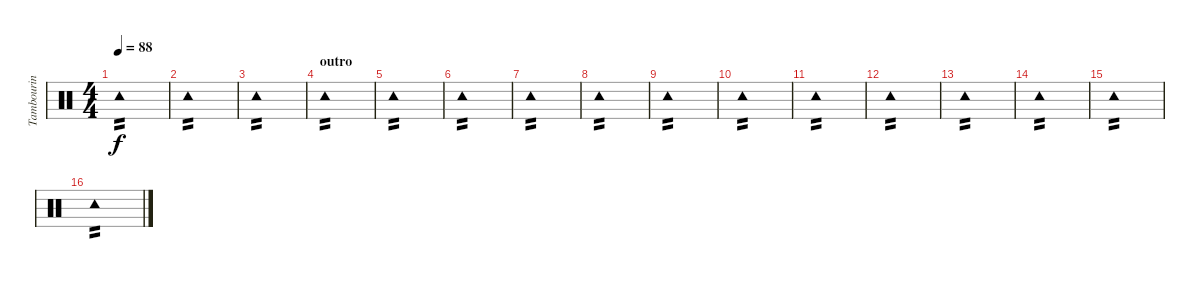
\track ("Tambourin" "Tambourin") {instrument percussion}
\staff {score}
\articulation defaults
\ts (4 4)
\tempo 88
\clef neutral
\ks c "Tambourine (hit)".1{tp 2 dy f}
|
"Tambourine (hit)".1{tp 2} |
"Tambourine (hit)".1{tp 2} |
\section ("" "outro")
"Tambourine (hit)".1{tp 2} |
"Tambourine (hit)".1{tp 2} |
"Tambourine (hit)".1{tp 2} |
"Tambourine (hit)".1{tp 2} |
"Tambourine (hit)".1{tp 2} |
"Tambourine (hit)".1{tp 2} |
"Tambourine (hit)".1{tp 2} |
"Tambourine (hit)".1{tp 2} |
"Tambourine (hit)".1{tp 2} |
"Tambourine (hit)".1{tp 2} |
"Tambourine (hit)".1{tp 2} |
"Tambourine (hit)".1{tp 2} |
"Tambourine (hit)".1{tp 2}
